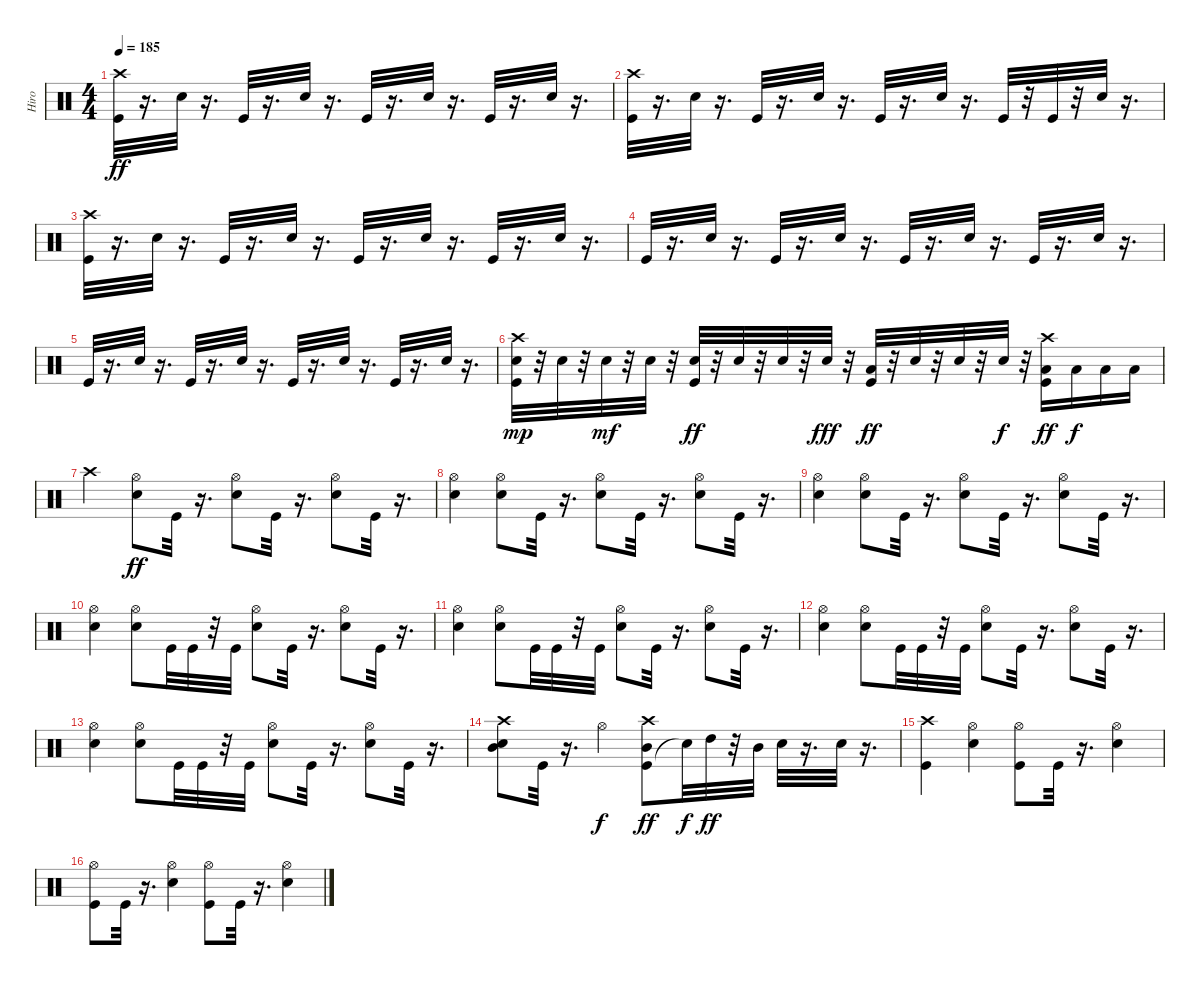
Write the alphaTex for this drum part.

\track ("Hiro" "Hiro") {instrument percussion}
\staff {score}
\articulation defaults
\ts (4 4)
\tempo 185
\clef neutral
\ks c
("Crash high (hit)" "Kick (hit)").32{dy ff} r.16{d} "Electric Snare (hit)".32 r.16{d} "Kick (hit)".32 r.16{d} "Electric Snare (hit)".32 r.16{d} "Kick (hit)".32 r.16{d} "Electric Snare (hit)".32 r.16{d} "Kick (hit)".32 r.16{d} "Electric Snare (hit)".32 r.16{d} |
("Crash high (hit)" "Kick (hit)").32 r.16{d} "Electric Snare (hit)".32 r.16{d} "Kick (hit)".32 r.16{d} "Electric Snare (hit)".32 r.16{d} "Kick (hit)".32 r.16{d} "Electric Snare (hit)".32 r.16{d} "Kick (hit)".32 r.32 "Kick (hit)".32 r.32 "Electric Snare (hit)".32 r.16{d} |
("Crash high (hit)" "Kick (hit)").32 r.16{d} "Electric Snare (hit)".32 r.16{d} "Kick (hit)".32 r.16{d} "Electric Snare (hit)".32 r.16{d} "Kick (hit)".32 r.16{d} "Electric Snare (hit)".32 r.16{d} "Kick (hit)".32 r.16{d} "Electric Snare (hit)".32 r.16{d} |
"Kick (hit)".32 r.16{d} "Electric Snare (hit)".32 r.16{d} "Kick (hit)".32 r.16{d} "Electric Snare (hit)".32 r.16{d} "Kick (hit)".32 r.16{d} "Electric Snare (hit)".32 r.16{d} "Kick (hit)".32 r.16{d} "Electric Snare (hit)".32 r.16{d} |
"Kick (hit)".32 r.16{d} "Electric Snare (hit)".32 r.16{d} "Kick (hit)".32 r.16{d} "Electric Snare (hit)".32 r.16{d} "Kick (hit)".32 r.16{d} "Electric Snare (hit)".32 r.16{d} "Kick (hit)".32 r.16{d} "Electric Snare (hit)".32 r.16{d} |
("Crash high (hit)" "Kick (hit)" "Electric Snare (hit)").32{dy mp} r.32 "Electric Snare (hit)".32 r.32 "Electric Snare (hit)".32{dy mf} r.32 "Electric Snare (hit)".32 r.32 ("Electric Snare (hit)" "Kick (hit)").32{dy ff} r.32 "Electric Snare (hit)".32 r.32 "Electric Snare (hit)".32 r.32 "Electric Snare (hit)".32{dy fff} r.32 ("Low Tom (hit)" "Kick (hit)").32{dy ff} r.32 "Electric Snare (hit)".32 r.32 "Electric Snare (hit)".32 r.32 "Electric Snare (hit)".32{dy f} r.32 ("Crash high (hit)" "Kick (hit)" "Low Tom (hit)").16{dy ff} "Low Tom (hit)".16{dy f} "Low Tom (hit)".16 "Low Tom (hit)".16 |
"Crash high (hit)".4 ("Hi-Hat (open)" "Electric Snare (hit)").8{dy ff} "Kick (hit)".32 r.16{d} ("Hi-Hat (open)" "Electric Snare (hit)").8 "Kick (hit)".32 r.16{d} ("Hi-Hat (open)" "Electric Snare (hit)").8 "Kick (hit)".32 r.16{d} |
("Hi-Hat (open)" "Electric Snare (hit)").4 ("Hi-Hat (open)" "Electric Snare (hit)").8 "Kick (hit)".32 r.16{d} ("Hi-Hat (open)" "Electric Snare (hit)").8 "Kick (hit)".32 r.16{d} ("Hi-Hat (open)" "Electric Snare (hit)").8 "Kick (hit)".32 r.16{d} |
("Hi-Hat (open)" "Electric Snare (hit)").4 ("Hi-Hat (open)" "Electric Snare (hit)").8 "Kick (hit)".32 r.16{d} ("Hi-Hat (open)" "Electric Snare (hit)").8 "Kick (hit)".32 r.16{d} ("Hi-Hat (open)" "Electric Snare (hit)").8 "Kick (hit)".32 r.16{d} |
("Hi-Hat (open)" "Electric Snare (hit)").4 ("Hi-Hat (open)" "Electric Snare (hit)").8 "Kick (hit)".32 "Kick (hit)".32 r.32 "Kick (hit)".32 ("Hi-Hat (open)" "Electric Snare (hit)").8 "Kick (hit)".32 r.16{d} ("Hi-Hat (open)" "Electric Snare (hit)").8 "Kick (hit)".32 r.16{d} |
("Hi-Hat (open)" "Electric Snare (hit)").4 ("Hi-Hat (open)" "Electric Snare (hit)").8 "Kick (hit)".32 "Kick (hit)".32 r.32 "Kick (hit)".32 ("Hi-Hat (open)" "Electric Snare (hit)").8 "Kick (hit)".32 r.16{d} ("Hi-Hat (open)" "Electric Snare (hit)").8 "Kick (hit)".32 r.16{d} |
("Hi-Hat (open)" "Electric Snare (hit)").4 ("Hi-Hat (open)" "Electric Snare (hit)").8 "Kick (hit)".32 "Kick (hit)".32 r.32 "Kick (hit)".32 ("Hi-Hat (open)" "Electric Snare (hit)").8 "Kick (hit)".32 r.16{d} ("Hi-Hat (open)" "Electric Snare (hit)").8 "Kick (hit)".32 r.16{d} |
("Hi-Hat (open)" "Electric Snare (hit)").4 ("Hi-Hat (open)" "Electric Snare (hit)").8 "Kick (hit)".32 "Kick (hit)".32 r.32 "Kick (hit)".32 ("Hi-Hat (open)" "Electric Snare (hit)").8 "Kick (hit)".32 r.16{d} ("Hi-Hat (open)" "Electric Snare (hit)").8 "Kick (hit)".32 r.16{d} |
("Mid Tom (hit)" "Electric Snare (hit)" "Crash high (hit)").8 "Kick (hit)".32 r.16{d} "Hi-Hat (open)".4{dy f} ("Kick (hit)" "Mid Tom (hit)" "Crash high (hit)").8{dy ff} "Snare (hit)"{t}.32{dy f} "High Tom (hit)".32{dy ff} r.32 "Mid Tom (hit)".32 "Snare (hit) 2".32 r.16{d} "Snare (hit) 2".32 r.16{d} |
("Crash high (hit)" "Kick (hit)").4 ("Hi-Hat (open)" "Electric Snare (hit)").4 ("Hi-Hat (open)" "Kick (hit)").8 "Kick (hit)".32 r.16{d} ("Hi-Hat (open)" "Electric Snare (hit)").4 |
("Hi-Hat (open)" "Kick (hit)").8 "Kick (hit)".32 r.16{d} ("Hi-Hat (open)" "Electric Snare (hit)").4 ("Hi-Hat (open)" "Kick (hit)").8 "Kick (hit)".32 r.16{d} ("Hi-Hat (open)" "Electric Snare (hit)").4
